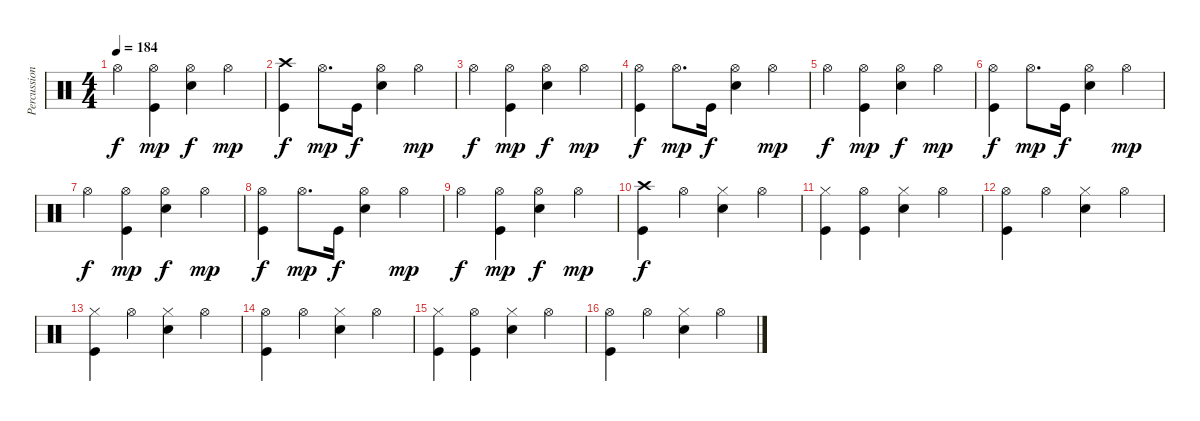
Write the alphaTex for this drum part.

\track ("Percussion" "Percussion") {instrument percussion}
\staff {score}
\articulation defaults
\ts (4 4)
\tempo 184
\clef neutral
\ks c "Hi-Hat (open)".4{dy f}
("Hi-Hat (open)" "Kick (hit)").4{dy mp} ("Hi-Hat (open)" "Electric Snare (hit)").4{dy f} "Hi-Hat (open)".4{dy mp} |
("Crash high (hit)" "Kick (hit)").4{dy f} "Hi-Hat (open)".8{d dy mp} "Kick (hit)".16{dy f} ("Hi-Hat (open)" "Electric Snare (hit)").4 "Hi-Hat (open)".4{dy mp} |
"Hi-Hat (open)".4{dy f} ("Hi-Hat (open)" "Kick (hit)").4{dy mp} ("Hi-Hat (open)" "Electric Snare (hit)").4{dy f} "Hi-Hat (open)".4{dy mp} |
("Hi-Hat (open)" "Kick (hit)").4{dy f} "Hi-Hat (open)".8{d dy mp} "Kick (hit)".16{dy f} ("Hi-Hat (open)" "Electric Snare (hit)").4 "Hi-Hat (open)".4{dy mp} |
"Hi-Hat (open)".4{dy f} ("Hi-Hat (open)" "Kick (hit)").4{dy mp} ("Hi-Hat (open)" "Electric Snare (hit)").4{dy f} "Hi-Hat (open)".4{dy mp} |
("Hi-Hat (open)" "Kick (hit)").4{dy f} "Hi-Hat (open)".8{d dy mp} "Kick (hit)".16{dy f} ("Hi-Hat (open)" "Electric Snare (hit)").4 "Hi-Hat (open)".4{dy mp} |
"Hi-Hat (open)".4{dy f} ("Hi-Hat (open)" "Kick (hit)").4{dy mp} ("Hi-Hat (open)" "Electric Snare (hit)").4{dy f} "Hi-Hat (open)".4{dy mp} |
("Hi-Hat (open)" "Kick (hit)").4{dy f} "Hi-Hat (open)".8{d dy mp} "Kick (hit)".16{dy f} ("Hi-Hat (open)" "Electric Snare (hit)").4 "Hi-Hat (open)".4{dy mp} |
"Hi-Hat (open)".4{dy f} ("Hi-Hat (open)" "Kick (hit)").4{dy mp} ("Hi-Hat (open)" "Electric Snare (hit)").4{dy f} "Hi-Hat (open)".4{dy mp} |
("Crash high (hit)" "Kick (hit)").4{dy f} "Hi-Hat (open)".4 ("Hi-Hat (closed)" "Electric Snare (hit)").4 "Hi-Hat (open)".4 |
("Hi-Hat (closed)" "Kick (hit)").4 ("Hi-Hat (open)" "Kick (hit)").4 ("Hi-Hat (closed)" "Electric Snare (hit)").4 "Hi-Hat (open)".4 |
("Hi-Hat (open)" "Kick (hit)").4 "Hi-Hat (open)".4 ("Hi-Hat (closed)" "Electric Snare (hit)").4 "Hi-Hat (open)".4 |
("Hi-Hat (closed)" "Kick (hit)").4 "Hi-Hat (open)".4 ("Hi-Hat (closed)" "Electric Snare (hit)").4 "Hi-Hat (open)".4 |
("Hi-Hat (open)" "Kick (hit)").4 "Hi-Hat (open)".4 ("Hi-Hat (closed)" "Electric Snare (hit)").4 "Hi-Hat (open)".4 |
("Hi-Hat (closed)" "Kick (hit)").4 ("Hi-Hat (open)" "Kick (hit)").4 ("Hi-Hat (closed)" "Electric Snare (hit)").4 "Hi-Hat (open)".4 |
("Hi-Hat (open)" "Kick (hit)").4 "Hi-Hat (open)".4 ("Hi-Hat (closed)" "Electric Snare (hit)").4 "Hi-Hat (open)".4
